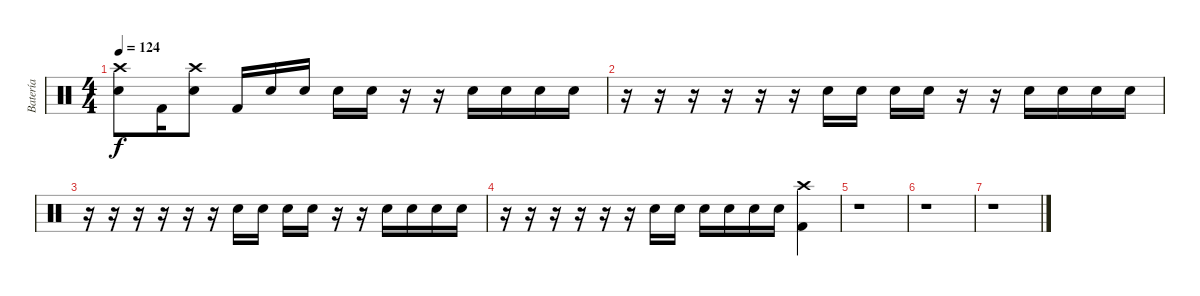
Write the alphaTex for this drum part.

\track ("Batería" "Batería") {instrument percussion}
\staff {score}
\articulation defaults
\ts (4 4)
\tempo 124
\clef neutral
\ks c
("Snare (hit) 2" "Crash high (hit)").8{dy f} "Kick (hit) 2".16 ("Snare (hit) 2" "Crash high (hit)").8 "Kick (hit) 2".16 "Snare (hit) 2".16 "Snare (hit) 2".16 "Snare (hit) 2".16 "Snare (hit) 2".16 r.16 r.16 "Snare (hit) 2".16 "Snare (hit) 2".16 "Snare (hit) 2".16 "Snare (hit) 2".16 |
r.16 r.16 r.16 r.16 r.16 r.16 "Snare (hit) 2".16 "Snare (hit) 2".16 "Snare (hit) 2".16 "Snare (hit) 2".16 r.16 r.16 "Snare (hit) 2".16 "Snare (hit) 2".16 "Snare (hit) 2".16 "Snare (hit) 2".16 |
r.16 r.16 r.16 r.16 r.16 r.16 "Snare (hit) 2".16 "Snare (hit) 2".16 "Snare (hit) 2".16 "Snare (hit) 2".16 r.16 r.16 "Snare (hit) 2".16 "Snare (hit) 2".16 "Snare (hit) 2".16 "Snare (hit) 2".16 |
r.16 r.16 r.16 r.16 r.16 r.16 "Snare (hit) 2".16 "Snare (hit) 2".16 "Snare (hit) 2".16 "Snare (hit) 2".16 "Snare (hit) 2".16 "Snare (hit) 2".16 ("Crash high (hit)" "Kick (hit) 2").4 |
r.1 |
r.1 |
r.1
